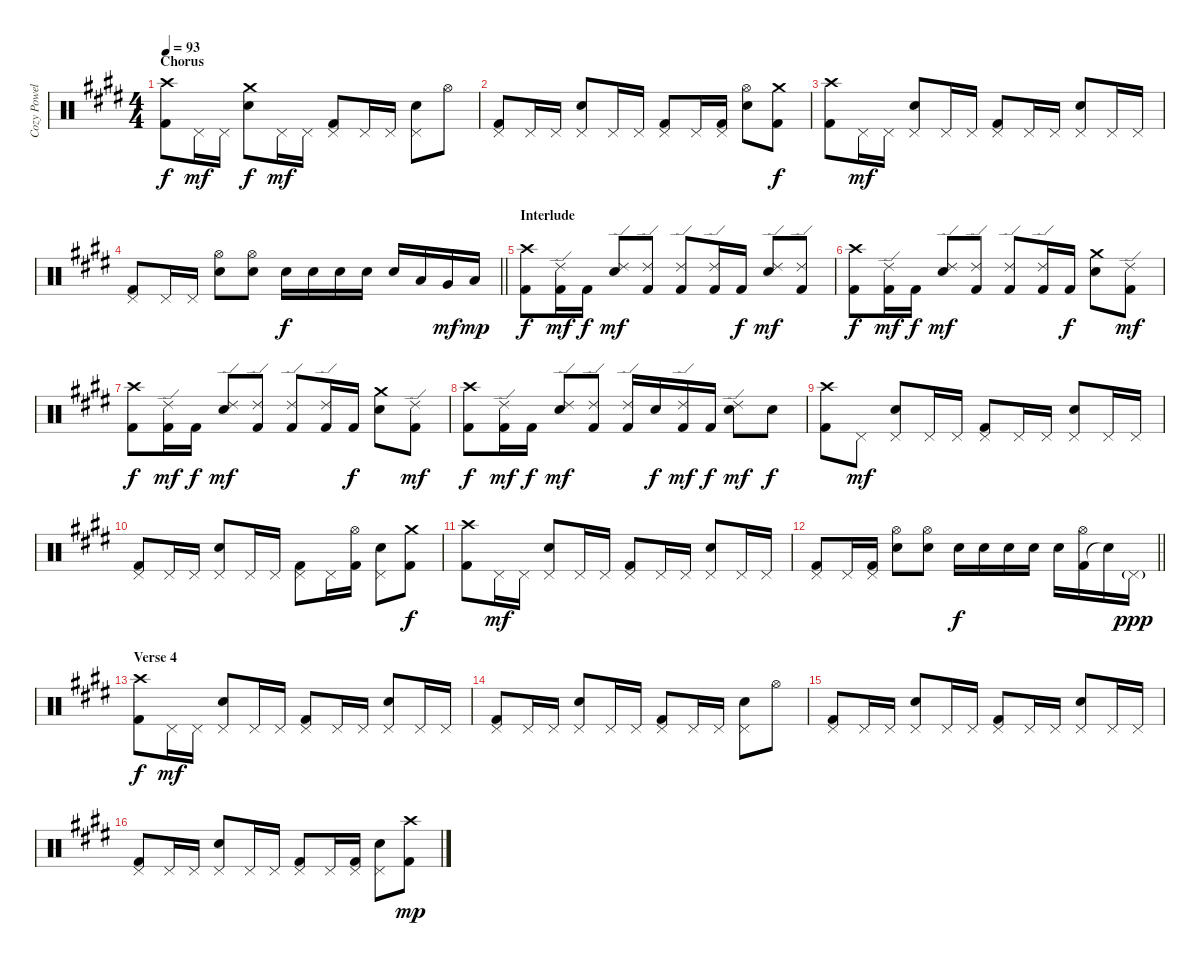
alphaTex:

\track ("Cozy Powell" "Cozy Powel") {instrument percussion}
\staff {score}
\articulation defaults
\ts (4 4)
\section ("" "Chorus")
\tempo 93
\clef neutral
\ks c#minor
("Kick (hit) 2" "Crash high (hit)").8{dy f} "Pedal Hi-Hat (hit)".16{dy mf} "Pedal Hi-Hat (hit)".16 ("Crash medium (hit)" "Snare (hit) 2").8{dy f} "Pedal Hi-Hat (hit)".16{dy mf} "Pedal Hi-Hat (hit)".16 ("Kick (hit) 2" "Pedal Hi-Hat (hit)").8 "Pedal Hi-Hat (hit)".16 "Pedal Hi-Hat (hit)".16 ("Pedal Hi-Hat (hit)" "Snare (hit) 2").8 "Hi-Hat (open)".8 |
("Kick (hit) 2" "Pedal Hi-Hat (hit)").8 "Pedal Hi-Hat (hit)".16 "Pedal Hi-Hat (hit)".16 ("Pedal Hi-Hat (hit)" "Snare (hit) 2").8 "Pedal Hi-Hat (hit)".16 "Pedal Hi-Hat (hit)".16 ("Kick (hit) 2" "Pedal Hi-Hat (hit)").8 "Pedal Hi-Hat (hit)".16 ("Kick (hit) 2" "Pedal Hi-Hat (hit)").16 ("Hi-Hat (open)" "Snare (hit) 2").8 ("Kick (hit) 2" "Crash medium (hit)").8{dy f} |
("Kick (hit) 2" "Crash high (hit)").8 "Pedal Hi-Hat (hit)".16{dy mf} "Pedal Hi-Hat (hit)".16 ("Pedal Hi-Hat (hit)" "Snare (hit) 2").8 "Pedal Hi-Hat (hit)".16 "Pedal Hi-Hat (hit)".16 ("Kick (hit) 2" "Pedal Hi-Hat (hit)").8 "Pedal Hi-Hat (hit)".16 "Pedal Hi-Hat (hit)".16 ("Pedal Hi-Hat (hit)" "Snare (hit) 2").8 "Pedal Hi-Hat (hit)".16 "Pedal Hi-Hat (hit)".16 |
\barLineRight lightlight
("Kick (hit) 2" "Pedal Hi-Hat (hit)").8 "Pedal Hi-Hat (hit)".16 "Pedal Hi-Hat (hit)".16 ("Hi-Hat (open)" "Snare (hit) 2").8 ("Hi-Hat (open)" "Snare (hit) 2").8 "Snare (hit) 2".16{dy f} "Snare (hit) 2".16 "Snare (hit) 2".16 "Snare (hit) 2".16 "Snare (hit) 2".16 "Low Tom (hit)".16 "Very Low Tom (hit)".16{dy mf} "Low Floor Tom (hit)".16{dy mp} |
\section ("" "Interlude")
("Kick (hit) 2" "Crash high (hit)").8{dy f} ("Kick (hit) 2" "Ride (edge) 2").16{dy mf} "Kick (hit) 2".16{dy f} ("Ride (edge) 2" "Snare (hit) 2").8{dy mf} ("Kick (hit) 2" "Ride (edge) 2").8 ("Kick (hit) 2" "Ride (edge) 2").8 ("Kick (hit) 2" "Ride (edge) 2").16 "Kick (hit) 2".16{dy f} ("Ride (edge) 2" "Snare (hit) 2").8{dy mf} ("Kick (hit) 2" "Ride (edge) 2").8 |
("Kick (hit) 2" "Crash high (hit)").8{dy f} ("Kick (hit) 2" "Ride (edge) 2").16{dy mf} "Kick (hit) 2".16{dy f} ("Ride (edge) 2" "Snare (hit) 2").8{dy mf} ("Kick (hit) 2" "Ride (edge) 2").8 ("Kick (hit) 2" "Ride (edge) 2").8 ("Kick (hit) 2" "Ride (edge) 2").16 "Kick (hit) 2".16{dy f} ("Crash medium (hit)" "Snare (hit) 2").8 ("Kick (hit) 2" "Ride (edge) 2").8{dy mf} |
("Kick (hit) 2" "Crash high (hit)").8{dy f} ("Kick (hit) 2" "Ride (edge) 2").16{dy mf} "Kick (hit) 2".16{dy f} ("Ride (edge) 2" "Snare (hit) 2").8{dy mf} ("Kick (hit) 2" "Ride (edge) 2").8 ("Kick (hit) 2" "Ride (edge) 2").8 ("Kick (hit) 2" "Ride (edge) 2").16 "Kick (hit) 2".16{dy f} ("Crash medium (hit)" "Snare (hit) 2").8 ("Kick (hit) 2" "Ride (edge) 2").8{dy mf} |
("Kick (hit) 2" "Crash high (hit)").8{dy f} ("Kick (hit) 2" "Ride (edge) 2").16{dy mf} "Kick (hit) 2".16{dy f} ("Ride (edge) 2" "Snare (hit) 2").8{dy mf} ("Kick (hit) 2" "Ride (edge) 2").8 ("Kick (hit) 2" "Ride (edge) 2").16 "Snare (hit) 2".16{dy f} ("Kick (hit) 2" "Ride (edge) 2").16{dy mf} "Kick (hit) 2".16{dy f} ("Ride (edge) 2" "Snare (hit) 2").8{dy mf} "Snare (hit) 2".8{dy f} |
("Kick (hit) 2" "Crash high (hit)").8 "Pedal Hi-Hat (hit)".8{dy mf} ("Pedal Hi-Hat (hit)" "Snare (hit) 2").8 "Pedal Hi-Hat (hit)".16 "Pedal Hi-Hat (hit)".16 ("Kick (hit) 2" "Pedal Hi-Hat (hit)").8 "Pedal Hi-Hat (hit)".16 "Pedal Hi-Hat (hit)".16 ("Pedal Hi-Hat (hit)" "Snare (hit) 2").8 "Pedal Hi-Hat (hit)".16 "Pedal Hi-Hat (hit)".16 |
("Kick (hit) 2" "Pedal Hi-Hat (hit)").8 "Pedal Hi-Hat (hit)".16 "Pedal Hi-Hat (hit)".16 ("Pedal Hi-Hat (hit)" "Snare (hit) 2").8 "Pedal Hi-Hat (hit)".16 "Pedal Hi-Hat (hit)".16 ("Kick (hit) 2" "Pedal Hi-Hat (hit)").8 "Pedal Hi-Hat (hit)".16 ("Kick (hit) 2" "Hi-Hat (open)").16 ("Pedal Hi-Hat (hit)" "Snare (hit) 2").8 ("Kick (hit) 2" "Crash medium (hit)").8{dy f} |
("Kick (hit) 2" "Crash high (hit)").8 "Pedal Hi-Hat (hit)".16{dy mf} "Pedal Hi-Hat (hit)".16 ("Pedal Hi-Hat (hit)" "Snare (hit) 2").8 "Pedal Hi-Hat (hit)".16 "Pedal Hi-Hat (hit)".16 ("Kick (hit) 2" "Pedal Hi-Hat (hit)").8 "Pedal Hi-Hat (hit)".16 "Pedal Hi-Hat (hit)".16 ("Pedal Hi-Hat (hit)" "Snare (hit) 2").8 "Pedal Hi-Hat (hit)".16 "Pedal Hi-Hat (hit)".16 |
\barLineRight lightlight
("Kick (hit) 2" "Pedal Hi-Hat (hit)").8 "Pedal Hi-Hat (hit)".16 ("Kick (hit) 2" "Pedal Hi-Hat (hit)").16 ("Hi-Hat (open)" "Snare (hit) 2").8 ("Hi-Hat (open)" "Snare (hit) 2").8 "Snare (hit) 2".16{dy f} "Snare (hit) 2".16 "Snare (hit) 2".16 "Snare (hit) 2".16 "Snare (hit) 2".16 ("Kick (hit) 2" "Hi-Hat (open)").16 "Snare (hit)"{t}.16 "Pedal Hi-Hat (hit)"{g}.16{dy ppp} |
\section ("" "Verse 4")
("Kick (hit) 2" "Crash high (hit)").8{dy f} "Pedal Hi-Hat (hit)".16{dy mf} "Pedal Hi-Hat (hit)".16 ("Pedal Hi-Hat (hit)" "Snare (hit) 2").8 "Pedal Hi-Hat (hit)".16 "Pedal Hi-Hat (hit)".16 ("Kick (hit) 2" "Pedal Hi-Hat (hit)").8 "Pedal Hi-Hat (hit)".16 "Pedal Hi-Hat (hit)".16 ("Pedal Hi-Hat (hit)" "Snare (hit) 2").8 "Pedal Hi-Hat (hit)".16 "Pedal Hi-Hat (hit)".16 |
("Kick (hit) 2" "Pedal Hi-Hat (hit)").8 "Pedal Hi-Hat (hit)".16 "Pedal Hi-Hat (hit)".16 ("Pedal Hi-Hat (hit)" "Snare (hit) 2").8 "Pedal Hi-Hat (hit)".16 "Pedal Hi-Hat (hit)".16 ("Kick (hit) 2" "Pedal Hi-Hat (hit)").8 "Pedal Hi-Hat (hit)".16 "Pedal Hi-Hat (hit)".16 ("Pedal Hi-Hat (hit)" "Snare (hit) 2").8 "Hi-Hat (open)".8 |
("Kick (hit) 2" "Pedal Hi-Hat (hit)").8 "Pedal Hi-Hat (hit)".16 "Pedal Hi-Hat (hit)".16 ("Pedal Hi-Hat (hit)" "Snare (hit) 2").8 "Pedal Hi-Hat (hit)".16 "Pedal Hi-Hat (hit)".16 ("Kick (hit) 2" "Pedal Hi-Hat (hit)").8 "Pedal Hi-Hat (hit)".16 "Pedal Hi-Hat (hit)".16 ("Pedal Hi-Hat (hit)" "Snare (hit) 2").8 "Pedal Hi-Hat (hit)".16 "Pedal Hi-Hat (hit)".16 |
("Kick (hit) 2" "Pedal Hi-Hat (hit)").8 "Pedal Hi-Hat (hit)".16 "Pedal Hi-Hat (hit)".16 ("Pedal Hi-Hat (hit)" "Snare (hit) 2").8 "Pedal Hi-Hat (hit)".16 "Pedal Hi-Hat (hit)".16 ("Kick (hit) 2" "Pedal Hi-Hat (hit)").8 "Pedal Hi-Hat (hit)".16 ("Kick (hit) 2" "Pedal Hi-Hat (hit)").16 ("Pedal Hi-Hat (hit)" "Snare (hit) 2").8 ("Kick (hit) 2" "Crash high (hit)").8{dy mp}
